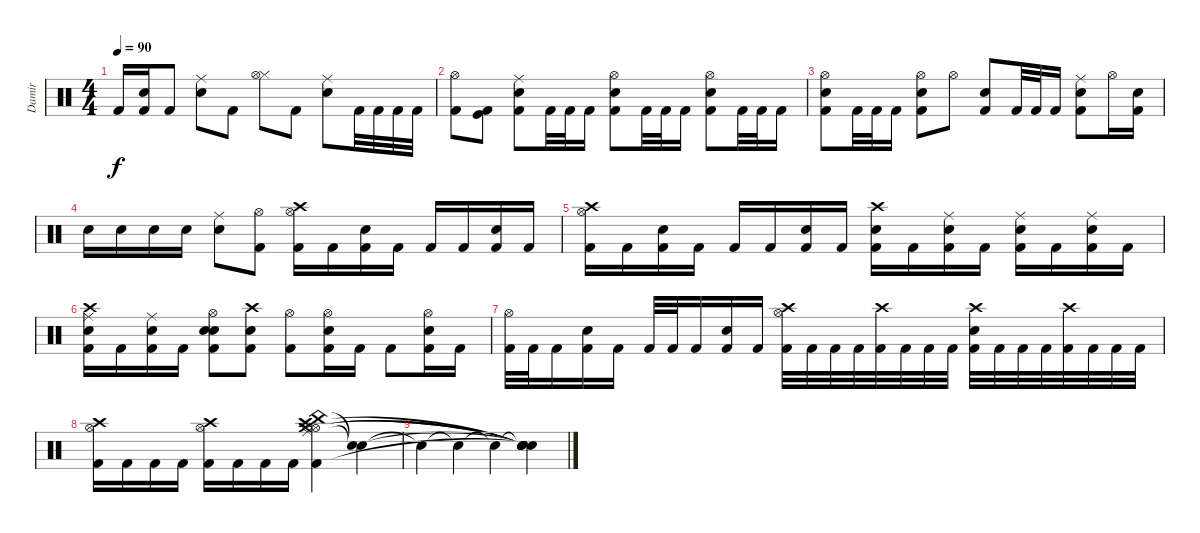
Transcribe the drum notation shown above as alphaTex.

\track ("Damir" "Damir") {instrument percussion}
\staff {score}
\articulation defaults
\ts (4 4)
\tempo 90
\clef neutral
\ks c "Kick (hit) 2".16{dy f}
("Kick (hit) 2" "Snare (hit) 2").16 "Kick (hit) 2".8 ("Snare (hit) 2" "Ride (middle)").8 "Kick (hit) 2".8 ("Hi-Hat (closed)" "Hi-Hat (open)").8 "Kick (hit) 2".8 ("Snare (hit) 2" "Ride (middle)").8 "Kick (hit) 2".32 "Kick (hit) 2".32 "Kick (hit) 2".32 "Kick (hit) 2".32 |
("Kick (hit) 2" "Hi-Hat (open)").8 ("Kick (hit)" "Kick (hit) 2").8 ("Kick (hit) 2" "Snare (hit) 2" "Ride (middle)").8 "Kick (hit) 2".32 "Kick (hit) 2".32 "Kick (hit) 2".16 ("Kick (hit) 2" "Snare (hit) 2" "Hi-Hat (open)").8 "Kick (hit) 2".32 "Kick (hit) 2".32 "Kick (hit) 2".16 ("Kick (hit) 2" "Snare (hit) 2" "Hi-Hat (open)").8 "Kick (hit) 2".32 "Kick (hit) 2".32 "Kick (hit) 2".16 |
("Kick (hit) 2" "Snare (hit) 2" "Hi-Hat (open)").8 "Kick (hit) 2".32 "Kick (hit) 2".32 "Kick (hit) 2".16 ("Kick (hit) 2" "Snare (hit) 2" "Hi-Hat (open)").8 "Hi-Hat (open)".8 ("Kick (hit) 2" "Snare (hit) 2").8 "Kick (hit) 2".32 "Kick (hit) 2".32 "Kick (hit) 2".16 ("Kick (hit) 2" "Snare (hit) 2" "Ride (middle)").8 "Hi-Hat (open)".16 ("Snare (hit) 2" "Kick (hit) 2").16 |
"Snare (hit) 2".16 "Snare (hit) 2".16 "Snare (hit) 2".16 "Snare (hit) 2".16 ("Snare (hit) 2" "Ride (middle)").8 ("Kick (hit) 2" "Hi-Hat (open)").8 ("Kick (hit) 2" "Hi-Hat (open)" "Crash high (hit)").16 "Kick (hit) 2".16 ("Kick (hit) 2" "Snare (hit) 2").16 "Kick (hit) 2".16 "Kick (hit) 2".16 "Kick (hit) 2".16 ("Kick (hit) 2" "Snare (hit) 2").16 "Kick (hit) 2".16 |
("Kick (hit) 2" "Hi-Hat (open)" "Crash high (hit)").16 "Kick (hit) 2".16 ("Kick (hit) 2" "Snare (hit) 2").16 "Kick (hit) 2".16 "Kick (hit) 2".16 "Kick (hit) 2".16 ("Kick (hit) 2" "Snare (hit) 2").16 "Kick (hit) 2".16 ("Kick (hit) 2" "Crash high (hit)" "Snare (hit) 2").16 "Kick (hit) 2".16 ("Kick (hit) 2" "Ride (middle)" "Snare (hit) 2").16 "Kick (hit) 2".16 ("Kick (hit) 2" "Ride (middle)" "Snare (hit) 2").16 "Kick (hit) 2".16 ("Kick (hit) 2" "Ride (middle)" "Snare (hit) 2").16 "Kick (hit) 2".16 |
("Kick (hit) 2" "Ride (middle)" "Crash high (hit)" "Snare (hit) 2").16 "Kick (hit) 2".16 ("Kick (hit) 2" "Ride (middle)" "Snare (hit) 2").16 "Kick (hit) 2".16 ("Kick (hit) 2" "Snare (hit) 2" "Hi-Hat (open)" "Snare (hit) 2").8 ("Kick (hit) 2" "Snare (hit) 2" "Crash high (hit)").8 ("Kick (hit) 2" "Hi-Hat (open)").8 ("Kick (hit) 2" "Hi-Hat (open)" "Snare (hit) 2").16 "Kick (hit) 2".16 "Kick (hit) 2".8 ("Kick (hit) 2" "Snare (hit) 2" "Hi-Hat (open)").16 "Kick (hit) 2".16 |
("Kick (hit) 2" "Hi-Hat (open)").32 "Kick (hit) 2".32 "Kick (hit) 2".16 ("Kick (hit) 2" "Snare (hit) 2").16 "Kick (hit) 2".16 "Kick (hit) 2".32 "Kick (hit) 2".32 "Kick (hit) 2".16 ("Kick (hit) 2" "Snare (hit) 2").16 "Kick (hit) 2".16 ("Kick (hit) 2" "Hi-Hat (open)" "Crash high (hit)").32 "Kick (hit) 2".32 "Kick (hit) 2".32 "Kick (hit) 2".32 ("Kick (hit) 2" "Crash high (hit)").32 "Kick (hit) 2".32 "Kick (hit) 2".32 "Kick (hit) 2".32 ("Kick (hit) 2" "Crash high (hit)" "Snare (hit) 2").32 "Kick (hit) 2".32 "Kick (hit) 2".32 "Kick (hit) 2".32 ("Kick (hit) 2" "Crash high (hit)").32 "Kick (hit) 2".32 "Kick (hit) 2".32 "Kick (hit) 2".32 |
("Crash high (hit)" "Hi-Hat (open)" "Kick (hit) 2").16 "Kick (hit) 2".16 "Kick (hit) 2".16 "Kick (hit) 2".16 ("Kick (hit) 2" "Hi-Hat (open)" "Crash high (hit)").16 "Kick (hit) 2".16 "Kick (hit) 2".16 "Kick (hit) 2".16 ("Ride (middle)" "China (hit)" "Crash high (hit)" "Hi-Hat (open)" "Kick (hit) 2" "Crash medium (hit)").4 ("Snare (hit)"{t} "Snare (hit)"{t}).4 |
"Snare (hit)"{t}.4 "Snare (hit)"{t}.4 "Snare (hit)"{t}.4 ("Snare (hit)"{t} "Snare (hit)"{t} "Snare (hit)"{t} "Snare (hit)"{t} "Snare (hit)"{t} "Snare (hit)"{t}).4
